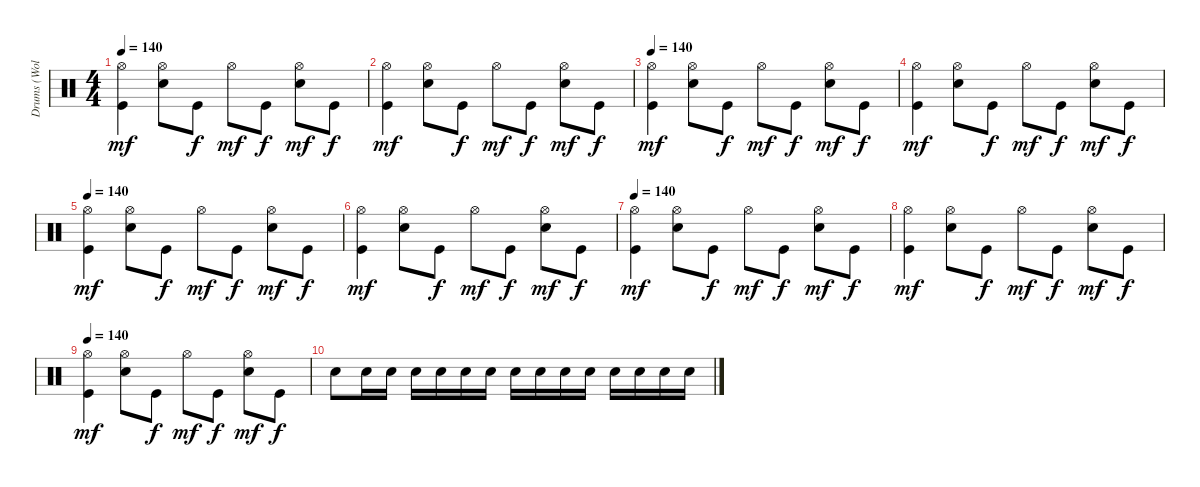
\track ("Drums (Wolf Simons)" "Drums (Wol") {instrument percussion}
\staff {score}
\articulation defaults
\ts (4 4)
\tempo 140
\clef neutral
\ks c
("Kick (hit)" "Hi-Hat (open)").4{dy mf} ("Electric Snare (hit)" "Hi-Hat (open)").8 "Kick (hit)".8{dy f} "Hi-Hat (open)".8{dy mf} "Kick (hit)".8{dy f} ("Electric Snare (hit)" "Hi-Hat (open)").8{dy mf} "Kick (hit)".8{dy f} |
("Kick (hit)" "Hi-Hat (open)").4{dy mf} ("Electric Snare (hit)" "Hi-Hat (open)").8 "Kick (hit)".8{dy f} "Hi-Hat (open)".8{dy mf} "Kick (hit)".8{dy f} ("Electric Snare (hit)" "Hi-Hat (open)").8{dy mf} "Kick (hit)".8{dy f} |
\tempo 140
("Kick (hit)" "Hi-Hat (open)").4{dy mf} ("Electric Snare (hit)" "Hi-Hat (open)").8 "Kick (hit)".8{dy f} "Hi-Hat (open)".8{dy mf} "Kick (hit)".8{dy f} ("Electric Snare (hit)" "Hi-Hat (open)").8{dy mf} "Kick (hit)".8{dy f} |
("Kick (hit)" "Hi-Hat (open)").4{dy mf} ("Electric Snare (hit)" "Hi-Hat (open)").8 "Kick (hit)".8{dy f} "Hi-Hat (open)".8{dy mf} "Kick (hit)".8{dy f} ("Electric Snare (hit)" "Hi-Hat (open)").8{dy mf} "Kick (hit)".8{dy f} |
\tempo 140
("Kick (hit)" "Hi-Hat (open)").4{dy mf} ("Electric Snare (hit)" "Hi-Hat (open)").8 "Kick (hit)".8{dy f} "Hi-Hat (open)".8{dy mf} "Kick (hit)".8{dy f} ("Electric Snare (hit)" "Hi-Hat (open)").8{dy mf} "Kick (hit)".8{dy f} |
("Kick (hit)" "Hi-Hat (open)").4{dy mf} ("Electric Snare (hit)" "Hi-Hat (open)").8 "Kick (hit)".8{dy f} "Hi-Hat (open)".8{dy mf} "Kick (hit)".8{dy f} ("Electric Snare (hit)" "Hi-Hat (open)").8{dy mf} "Kick (hit)".8{dy f} |
\tempo 140
("Kick (hit)" "Hi-Hat (open)").4{dy mf} ("Electric Snare (hit)" "Hi-Hat (open)").8 "Kick (hit)".8{dy f} "Hi-Hat (open)".8{dy mf} "Kick (hit)".8{dy f} ("Electric Snare (hit)" "Hi-Hat (open)").8{dy mf} "Kick (hit)".8{dy f} |
("Kick (hit)" "Hi-Hat (open)").4{dy mf} ("Electric Snare (hit)" "Hi-Hat (open)").8 "Kick (hit)".8{dy f} "Hi-Hat (open)".8{dy mf} "Kick (hit)".8{dy f} ("Electric Snare (hit)" "Hi-Hat (open)").8{dy mf} "Kick (hit)".8{dy f} |
\tempo 140
("Kick (hit)" "Hi-Hat (open)").4{dy mf} ("Electric Snare (hit)" "Hi-Hat (open)").8 "Kick (hit)".8{dy f} "Hi-Hat (open)".8{dy mf} "Kick (hit)".8{dy f} ("Electric Snare (hit)" "Hi-Hat (open)").8{dy mf} "Kick (hit)".8{dy f} |
"Electric Snare (hit)".8 "Electric Snare (hit)".16 "Electric Snare (hit)".16 "Electric Snare (hit)".16 "Electric Snare (hit)".16 "Electric Snare (hit)".16 "Electric Snare (hit)".16 "Electric Snare (hit)".16 "Electric Snare (hit)".16 "Electric Snare (hit)".16 "Electric Snare (hit)".16 "Electric Snare (hit)".16 "Electric Snare (hit)".16 "Electric Snare (hit)".16 "Electric Snare (hit)".16
